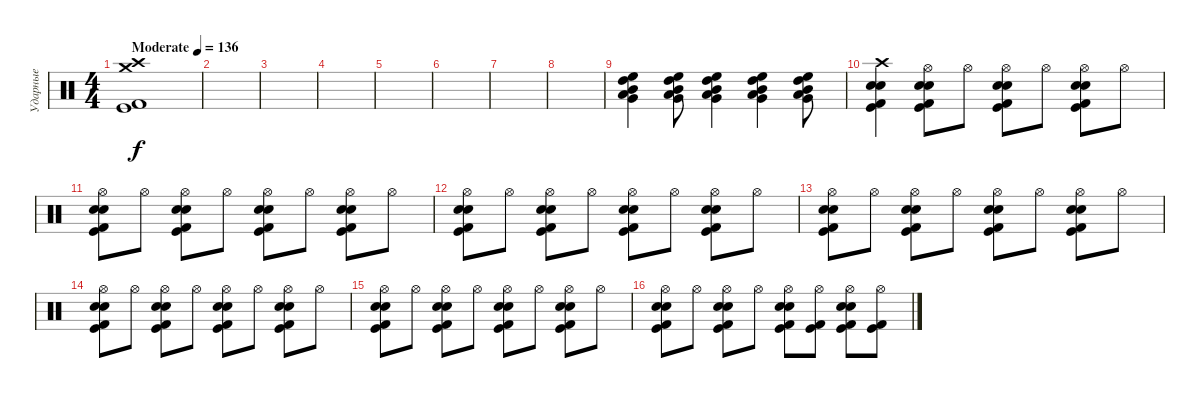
\track ("Ударные" "Ударные") {instrument percussion}
\staff {score}
\articulation defaults
\ts (4 4)
\tempo (136 "Moderate")
\clef neutral
\ks c
("Crash high (hit)" "Kick (hit)" "Kick (hit) 2" "Crash medium (hit)").1{dy f} |
|
|
|
|
|
|
|
("High Floor Tom (hit)" "High Tom (hit)" "Mid Tom (hit)" "Low Tom (hit)" "Very Low Tom (hit)").4 ("High Floor Tom (hit)" "High Tom (hit)" "Mid Tom (hit)" "Low Tom (hit)" "Very Low Tom (hit)").8 ("High Floor Tom (hit)" "High Tom (hit)" "Mid Tom (hit)" "Low Tom (hit)" "Very Low Tom (hit)").4 ("High Floor Tom (hit)" "High Tom (hit)" "Mid Tom (hit)" "Low Tom (hit)" "Very Low Tom (hit)").4 ("High Floor Tom (hit)" "High Tom (hit)" "Mid Tom (hit)" "Low Tom (hit)" "Very Low Tom (hit)").8 |
("Crash high (hit)" "Snare (hit) 2" "Kick (hit) 2" "Kick (hit)" "Electric Snare (hit)").4 ("Hi-Hat (open)" "Snare (hit) 2" "Kick (hit) 2" "Kick (hit)" "Electric Snare (hit)").8 "Hi-Hat (open)".8 ("Hi-Hat (open)" "Snare (hit) 2" "Kick (hit) 2" "Kick (hit)" "Electric Snare (hit)").8 "Hi-Hat (open)".8 ("Hi-Hat (open)" "Snare (hit) 2" "Kick (hit) 2" "Kick (hit)" "Electric Snare (hit)").8 "Hi-Hat (open)".8 |
("Hi-Hat (open)" "Snare (hit) 2" "Kick (hit) 2" "Kick (hit)" "Electric Snare (hit)").8 "Hi-Hat (open)".8 ("Hi-Hat (open)" "Snare (hit) 2" "Kick (hit) 2" "Kick (hit)" "Electric Snare (hit)").8 "Hi-Hat (open)".8 ("Hi-Hat (open)" "Snare (hit) 2" "Kick (hit) 2" "Kick (hit)" "Electric Snare (hit)").8 "Hi-Hat (open)".8 ("Hi-Hat (open)" "Snare (hit) 2" "Kick (hit) 2" "Kick (hit)" "Electric Snare (hit)").8 "Hi-Hat (open)".8 |
("Hi-Hat (open)" "Snare (hit) 2" "Kick (hit) 2" "Kick (hit)" "Electric Snare (hit)").8 "Hi-Hat (open)".8 ("Hi-Hat (open)" "Snare (hit) 2" "Kick (hit) 2" "Kick (hit)" "Electric Snare (hit)").8 "Hi-Hat (open)".8 ("Hi-Hat (open)" "Snare (hit) 2" "Kick (hit) 2" "Kick (hit)" "Electric Snare (hit)").8 "Hi-Hat (open)".8 ("Hi-Hat (open)" "Snare (hit) 2" "Kick (hit) 2" "Kick (hit)" "Electric Snare (hit)").8 "Hi-Hat (open)".8 |
("Hi-Hat (open)" "Snare (hit) 2" "Kick (hit) 2" "Kick (hit)" "Electric Snare (hit)").8 "Hi-Hat (open)".8 ("Hi-Hat (open)" "Snare (hit) 2" "Kick (hit) 2" "Kick (hit)" "Electric Snare (hit)").8 "Hi-Hat (open)".8 ("Hi-Hat (open)" "Snare (hit) 2" "Kick (hit) 2" "Kick (hit)" "Electric Snare (hit)").8 "Hi-Hat (open)".8 ("Hi-Hat (open)" "Snare (hit) 2" "Kick (hit) 2" "Kick (hit)" "Electric Snare (hit)").8 "Hi-Hat (open)".8 |
("Hi-Hat (open)" "Snare (hit) 2" "Kick (hit) 2" "Kick (hit)" "Electric Snare (hit)").8 "Hi-Hat (open)".8 ("Hi-Hat (open)" "Snare (hit) 2" "Kick (hit) 2" "Kick (hit)" "Electric Snare (hit)").8 "Hi-Hat (open)".8 ("Hi-Hat (open)" "Snare (hit) 2" "Kick (hit) 2" "Kick (hit)" "Electric Snare (hit)").8 "Hi-Hat (open)".8 ("Hi-Hat (open)" "Snare (hit) 2" "Kick (hit) 2" "Kick (hit)" "Electric Snare (hit)").8 "Hi-Hat (open)".8 |
("Hi-Hat (open)" "Snare (hit) 2" "Kick (hit) 2" "Kick (hit)" "Electric Snare (hit)").8 "Hi-Hat (open)".8 ("Hi-Hat (open)" "Snare (hit) 2" "Kick (hit) 2" "Kick (hit)" "Electric Snare (hit)").8 "Hi-Hat (open)".8 ("Hi-Hat (open)" "Snare (hit) 2" "Kick (hit) 2" "Kick (hit)" "Electric Snare (hit)").8 "Hi-Hat (open)".8 ("Hi-Hat (open)" "Snare (hit) 2" "Kick (hit) 2" "Kick (hit)" "Electric Snare (hit)").8 "Hi-Hat (open)".8 |
("Hi-Hat (open)" "Snare (hit) 2" "Kick (hit) 2" "Kick (hit)" "Electric Snare (hit)").8 "Hi-Hat (open)".8 ("Hi-Hat (open)" "Snare (hit) 2" "Kick (hit) 2" "Kick (hit)" "Electric Snare (hit)").8 "Hi-Hat (open)".8 ("Hi-Hat (open)" "Snare (hit) 2" "Kick (hit) 2" "Kick (hit)" "Electric Snare (hit)").8 ("Hi-Hat (open)" "Kick (hit) 2" "Kick (hit)").8 ("Hi-Hat (open)" "Snare (hit) 2" "Kick (hit) 2" "Kick (hit)" "Electric Snare (hit)").8 ("Hi-Hat (open)" "Kick (hit) 2" "Kick (hit)").8
